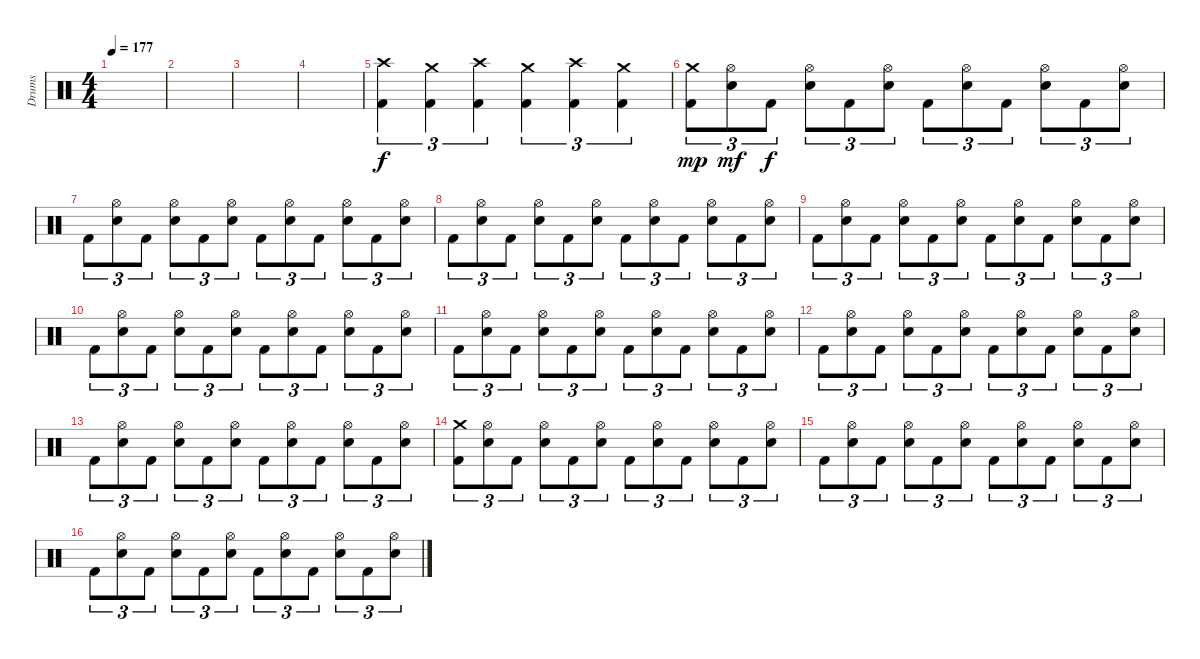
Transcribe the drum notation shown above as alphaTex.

\track ("Drums" "Drums") {instrument percussion}
\staff {score}
\articulation defaults
\ts (4 4)
\tempo 177
\clef neutral
\ks c
|
|
|
|
("Crash high (hit)" "Kick (hit) 2").4{tu (3 2) dy f} ("Crash medium (hit)" "Kick (hit) 2").4{tu (3 2)} ("Crash high (hit)" "Kick (hit) 2").4{tu (3 2)} ("Crash medium (hit)" "Kick (hit) 2").4{tu (3 2)} ("Crash high (hit)" "Kick (hit) 2").4{tu (3 2)} ("Crash medium (hit)" "Kick (hit) 2").4{tu (3 2)} |
("Crash medium (hit)" "Kick (hit) 2").8{tu (3 2) dy mp} ("Hi-Hat (open)" "Electric Snare (hit)").8{tu (3 2) dy mf} "Kick (hit) 2".8{tu (3 2) dy f} ("Hi-Hat (open)" "Electric Snare (hit)").8{tu (3 2)} "Kick (hit) 2".8{tu (3 2)} ("Hi-Hat (open)" "Electric Snare (hit)").8{tu (3 2)} "Kick (hit) 2".8{tu (3 2)} ("Hi-Hat (open)" "Electric Snare (hit)").8{tu (3 2)} "Kick (hit) 2".8{tu (3 2)} ("Hi-Hat (open)" "Electric Snare (hit)").8{tu (3 2)} "Kick (hit) 2".8{tu (3 2)} ("Hi-Hat (open)" "Electric Snare (hit)").8{tu (3 2)} |
"Kick (hit) 2".8{tu (3 2)} ("Hi-Hat (open)" "Electric Snare (hit)").8{tu (3 2)} "Kick (hit) 2".8{tu (3 2)} ("Hi-Hat (open)" "Electric Snare (hit)").8{tu (3 2)} "Kick (hit) 2".8{tu (3 2)} ("Hi-Hat (open)" "Electric Snare (hit)").8{tu (3 2)} "Kick (hit) 2".8{tu (3 2)} ("Hi-Hat (open)" "Electric Snare (hit)").8{tu (3 2)} "Kick (hit) 2".8{tu (3 2)} ("Hi-Hat (open)" "Electric Snare (hit)").8{tu (3 2)} "Kick (hit) 2".8{tu (3 2)} ("Hi-Hat (open)" "Electric Snare (hit)").8{tu (3 2)} |
"Kick (hit) 2".8{tu (3 2)} ("Hi-Hat (open)" "Electric Snare (hit)").8{tu (3 2)} "Kick (hit) 2".8{tu (3 2)} ("Hi-Hat (open)" "Electric Snare (hit)").8{tu (3 2)} "Kick (hit) 2".8{tu (3 2)} ("Hi-Hat (open)" "Electric Snare (hit)").8{tu (3 2)} "Kick (hit) 2".8{tu (3 2)} ("Hi-Hat (open)" "Electric Snare (hit)").8{tu (3 2)} "Kick (hit) 2".8{tu (3 2)} ("Hi-Hat (open)" "Electric Snare (hit)").8{tu (3 2)} "Kick (hit) 2".8{tu (3 2)} ("Hi-Hat (open)" "Electric Snare (hit)").8{tu (3 2)} |
"Kick (hit) 2".8{tu (3 2)} ("Hi-Hat (open)" "Electric Snare (hit)").8{tu (3 2)} "Kick (hit) 2".8{tu (3 2)} ("Hi-Hat (open)" "Electric Snare (hit)").8{tu (3 2)} "Kick (hit) 2".8{tu (3 2)} ("Hi-Hat (open)" "Electric Snare (hit)").8{tu (3 2)} "Kick (hit) 2".8{tu (3 2)} ("Hi-Hat (open)" "Electric Snare (hit)").8{tu (3 2)} "Kick (hit) 2".8{tu (3 2)} ("Hi-Hat (open)" "Electric Snare (hit)").8{tu (3 2)} "Kick (hit) 2".8{tu (3 2)} ("Hi-Hat (open)" "Electric Snare (hit)").8{tu (3 2)} |
"Kick (hit) 2".8{tu (3 2)} ("Hi-Hat (open)" "Electric Snare (hit)").8{tu (3 2)} "Kick (hit) 2".8{tu (3 2)} ("Hi-Hat (open)" "Electric Snare (hit)").8{tu (3 2)} "Kick (hit) 2".8{tu (3 2)} ("Hi-Hat (open)" "Electric Snare (hit)").8{tu (3 2)} "Kick (hit) 2".8{tu (3 2)} ("Hi-Hat (open)" "Electric Snare (hit)").8{tu (3 2)} "Kick (hit) 2".8{tu (3 2)} ("Hi-Hat (open)" "Electric Snare (hit)").8{tu (3 2)} "Kick (hit) 2".8{tu (3 2)} ("Hi-Hat (open)" "Electric Snare (hit)").8{tu (3 2)} |
"Kick (hit) 2".8{tu (3 2)} ("Hi-Hat (open)" "Electric Snare (hit)").8{tu (3 2)} "Kick (hit) 2".8{tu (3 2)} ("Hi-Hat (open)" "Electric Snare (hit)").8{tu (3 2)} "Kick (hit) 2".8{tu (3 2)} ("Hi-Hat (open)" "Electric Snare (hit)").8{tu (3 2)} "Kick (hit) 2".8{tu (3 2)} ("Hi-Hat (open)" "Electric Snare (hit)").8{tu (3 2)} "Kick (hit) 2".8{tu (3 2)} ("Hi-Hat (open)" "Electric Snare (hit)").8{tu (3 2)} "Kick (hit) 2".8{tu (3 2)} ("Hi-Hat (open)" "Electric Snare (hit)").8{tu (3 2)} |
"Kick (hit) 2".8{tu (3 2)} ("Hi-Hat (open)" "Electric Snare (hit)").8{tu (3 2)} "Kick (hit) 2".8{tu (3 2)} ("Hi-Hat (open)" "Electric Snare (hit)").8{tu (3 2)} "Kick (hit) 2".8{tu (3 2)} ("Hi-Hat (open)" "Electric Snare (hit)").8{tu (3 2)} "Kick (hit) 2".8{tu (3 2)} ("Hi-Hat (open)" "Electric Snare (hit)").8{tu (3 2)} "Kick (hit) 2".8{tu (3 2)} ("Hi-Hat (open)" "Electric Snare (hit)").8{tu (3 2)} "Kick (hit) 2".8{tu (3 2)} ("Hi-Hat (open)" "Electric Snare (hit)").8{tu (3 2)} |
"Kick (hit) 2".8{tu (3 2)} ("Hi-Hat (open)" "Electric Snare (hit)").8{tu (3 2)} "Kick (hit) 2".8{tu (3 2)} ("Hi-Hat (open)" "Electric Snare (hit)").8{tu (3 2)} "Kick (hit) 2".8{tu (3 2)} ("Hi-Hat (open)" "Electric Snare (hit)").8{tu (3 2)} "Kick (hit) 2".8{tu (3 2)} ("Hi-Hat (open)" "Electric Snare (hit)").8{tu (3 2)} "Kick (hit) 2".8{tu (3 2)} ("Hi-Hat (open)" "Electric Snare (hit)").8{tu (3 2)} "Kick (hit) 2".8{tu (3 2)} ("Hi-Hat (open)" "Electric Snare (hit)").8{tu (3 2)} |
("Crash medium (hit)" "Kick (hit) 2").8{tu (3 2)} ("Hi-Hat (open)" "Electric Snare (hit)").8{tu (3 2)} "Kick (hit) 2".8{tu (3 2)} ("Hi-Hat (open)" "Electric Snare (hit)").8{tu (3 2)} "Kick (hit) 2".8{tu (3 2)} ("Hi-Hat (open)" "Electric Snare (hit)").8{tu (3 2)} "Kick (hit) 2".8{tu (3 2)} ("Hi-Hat (open)" "Electric Snare (hit)").8{tu (3 2)} "Kick (hit) 2".8{tu (3 2)} ("Hi-Hat (open)" "Electric Snare (hit)").8{tu (3 2)} "Kick (hit) 2".8{tu (3 2)} ("Hi-Hat (open)" "Electric Snare (hit)").8{tu (3 2)} |
"Kick (hit) 2".8{tu (3 2)} ("Hi-Hat (open)" "Electric Snare (hit)").8{tu (3 2)} "Kick (hit) 2".8{tu (3 2)} ("Hi-Hat (open)" "Electric Snare (hit)").8{tu (3 2)} "Kick (hit) 2".8{tu (3 2)} ("Hi-Hat (open)" "Electric Snare (hit)").8{tu (3 2)} "Kick (hit) 2".8{tu (3 2)} ("Hi-Hat (open)" "Electric Snare (hit)").8{tu (3 2)} "Kick (hit) 2".8{tu (3 2)} ("Hi-Hat (open)" "Electric Snare (hit)").8{tu (3 2)} "Kick (hit) 2".8{tu (3 2)} ("Hi-Hat (open)" "Electric Snare (hit)").8{tu (3 2)} |
"Kick (hit) 2".8{tu (3 2)} ("Hi-Hat (open)" "Electric Snare (hit)").8{tu (3 2)} "Kick (hit) 2".8{tu (3 2)} ("Hi-Hat (open)" "Electric Snare (hit)").8{tu (3 2)} "Kick (hit) 2".8{tu (3 2)} ("Hi-Hat (open)" "Electric Snare (hit)").8{tu (3 2)} "Kick (hit) 2".8{tu (3 2)} ("Hi-Hat (open)" "Electric Snare (hit)").8{tu (3 2)} "Kick (hit) 2".8{tu (3 2)} ("Hi-Hat (open)" "Electric Snare (hit)").8{tu (3 2)} "Kick (hit) 2".8{tu (3 2)} ("Hi-Hat (open)" "Electric Snare (hit)").8{tu (3 2)}
